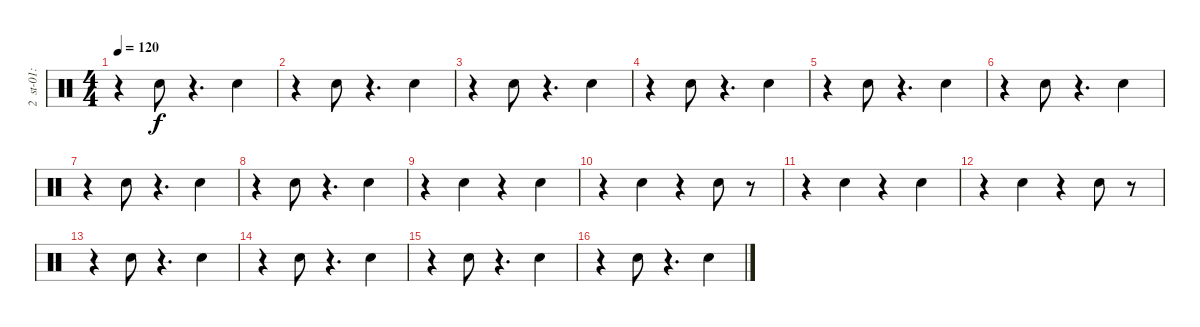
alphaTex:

\track (" 2  st-01:popsnare2" " 2  st-01:") {instrument percussion}
\staff {score}
\articulation defaults
\ts (4 4)
\tempo 120
\clef neutral
\ks c
r.4{dy f} "Snare (hit) 2".8 r.4{d} "Snare (hit) 2".4 |
r.4 "Snare (hit) 2".8 r.4{d} "Snare (hit) 2".4 |
r.4 "Snare (hit) 2".8 r.4{d} "Snare (hit) 2".4 |
r.4 "Snare (hit) 2".8 r.4{d} "Snare (hit) 2".4 |
r.4 "Snare (hit) 2".8 r.4{d} "Snare (hit) 2".4 |
r.4 "Snare (hit) 2".8 r.4{d} "Snare (hit) 2".4 |
r.4 "Snare (hit) 2".8 r.4{d} "Snare (hit) 2".4 |
r.4 "Snare (hit) 2".8 r.4{d} "Snare (hit) 2".4 |
r.4 "Snare (hit) 2".4 r.4 "Snare (hit) 2".4 |
r.4 "Snare (hit) 2".4 r.4 "Snare (hit) 2".8 r.8 |
r.4 "Snare (hit) 2".4 r.4 "Snare (hit) 2".4 |
r.4 "Snare (hit) 2".4 r.4 "Snare (hit) 2".8 r.8 |
r.4 "Snare (hit) 2".8 r.4{d} "Snare (hit) 2".4 |
r.4 "Snare (hit) 2".8 r.4{d} "Snare (hit) 2".4 |
r.4 "Snare (hit) 2".8 r.4{d} "Snare (hit) 2".4 |
r.4 "Snare (hit) 2".8 r.4{d} "Snare (hit) 2".4
